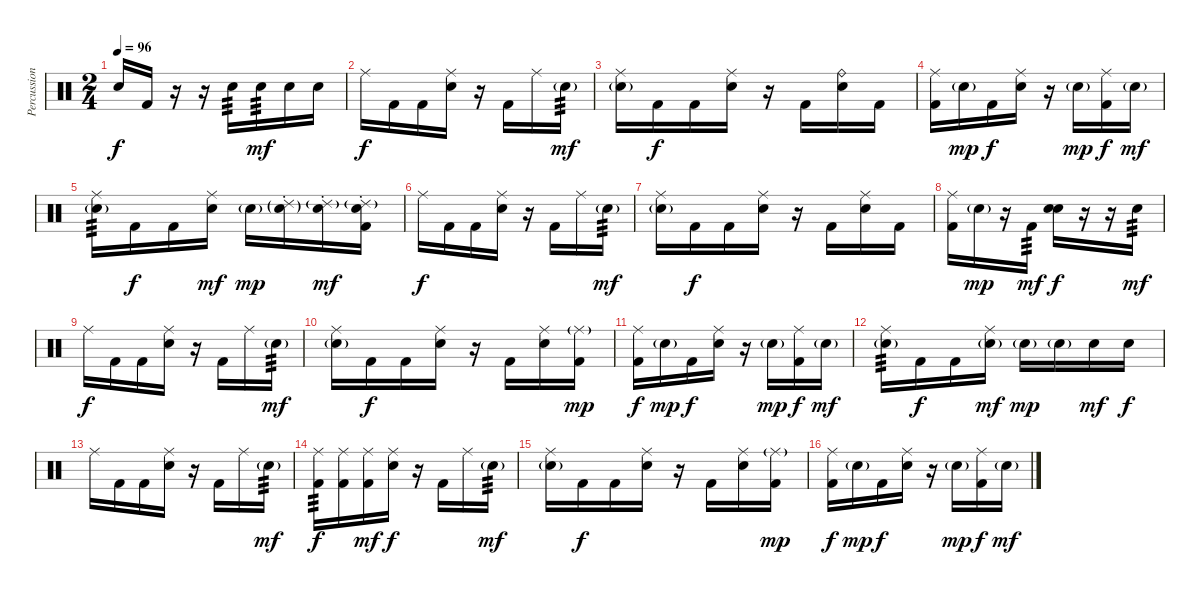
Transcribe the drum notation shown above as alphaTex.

\track ("Percussion" "Percussion") {instrument percussion}
\staff {score}
\articulation defaults
\ts (2 4)
\tempo 96
\clef neutral
\ks c "Snare (hit) 2".16{dy f} "Kick (hit) 2".16
r.16 r.16 "Snare (hit) 2".16{tp 3} "Snare (hit) 2".16{tp 3 dy mf} "Snare (hit) 2".16 "Snare (hit) 2".16 |
"Ride (middle)".16{dy f} "Kick (hit) 2".16 "Kick (hit) 2".16 ("Ride (middle)" "Snare (hit) 2").16 r.16 "Kick (hit) 2".16 "Ride (middle)".16 "Snare (hit) 2"{g}.16{tp 3 dy mf} |
("Ride (middle)" "Snare (hit) 2"{g}).16 "Kick (hit) 2".16{dy f} "Kick (hit) 2".16 ("Ride (middle)" "Snare (hit) 2").16 r.16 "Kick (hit) 2".16 ("Ride (bell)" "Snare (hit) 2").16 "Kick (hit) 2".16 |
("Ride (middle)" "Kick (hit) 2").16 "Snare (hit) 2"{g}.16{dy mp} "Kick (hit) 2".16{dy f} ("Ride (middle)" "Snare (hit) 2").16 r.16 "Snare (hit) 2"{g}.16{dy mp} ("Ride (middle)" "Kick (hit) 2").16{dy f} "Snare (hit) 2"{g}.16{dy mf} |
("Ride (middle)" "Snare (hit) 2"{g}).16{tp 3} "Kick (hit) 2".16{dy f} "Kick (hit) 2".16 ("Ride (middle)" "Snare (hit) 2").16{dy mf} "Snare (hit) 2"{g}.16{dy mp} ("Ride (choke) 2"{g} "Snare (hit) 2"{g}).16 ("Ride (choke) 2"{g} "Snare (hit) 2").16{dy mf} ("Ride (choke) 2"{g} "Snare (hit) 2" "Kick (hit) 2").16 |
"Ride (middle)".16{dy f} "Kick (hit) 2".16 "Kick (hit) 2".16 ("Ride (middle)" "Snare (hit) 2").16 r.16 "Kick (hit) 2".16 "Ride (middle)".16 "Snare (hit) 2"{g}.16{tp 3 dy mf} |
("Ride (middle)" "Snare (hit) 2"{g}).16 "Kick (hit) 2".16{dy f} "Kick (hit) 2".16 ("Ride (middle)" "Snare (hit) 2").16 r.16 "Kick (hit) 2".16 ("Ride (middle)" "Snare (hit) 2").16 "Kick (hit) 2".16 |
("Ride (middle)" "Kick (hit) 2").16 "Snare (hit) 2"{g}.16{dy mp} r.16 "Kick (hit) 2".16{tp 3 dy mf} ("Snare (hit)" "Snare (hit) 2").16{dy f} r.16 r.16 "Snare (hit) 2".16{tp 3 dy mf} |
"Ride (middle)".16{dy f} "Kick (hit) 2".16 "Kick (hit) 2".16 ("Ride (middle)" "Snare (hit) 2").16 r.16 "Kick (hit) 2".16 "Ride (middle)".16 "Snare (hit) 2"{g}.16{tp 3 dy mf} |
("Ride (middle)" "Snare (hit) 2"{g}).16 "Kick (hit) 2".16{dy f} "Kick (hit) 2".16 ("Ride (middle)" "Snare (hit) 2").16 r.16 "Kick (hit) 2".16 ("Ride (middle)" "Snare (hit) 2").16 ("Ride (middle)"{g} "Kick (hit) 2").16{dy mp} |
("Ride (middle)" "Kick (hit) 2").16{dy f} "Snare (hit) 2"{g}.16{dy mp} "Kick (hit) 2".16{dy f} ("Ride (middle)" "Snare (hit) 2").16 r.16 "Snare (hit) 2"{g}.16{dy mp} ("Ride (middle)" "Kick (hit) 2").16{dy f} "Snare (hit) 2"{g}.16{dy mf} |
("Ride (middle)" "Snare (hit) 2"{g}).16{tp 3} "Kick (hit) 2".16{dy f} "Kick (hit) 2".16 ("Ride (middle)" "Snare (hit) 2"{g}).16{dy mf} "Snare (hit) 2"{g}.16{dy mp} "Snare (hit) 2"{g}.16 "Snare (hit) 2".16{dy mf} "Snare (hit) 2".16{dy f} |
"Ride (middle)".16 "Kick (hit) 2".16 "Kick (hit) 2".16 ("Ride (middle)" "Snare (hit) 2").16 r.16 "Kick (hit) 2".16 "Ride (middle)".16 "Snare (hit) 2"{g}.16{tp 3 dy mf} |
("Ride (middle)" "Kick (hit) 2").16{tp 3 dy f} ("Ride (middle)" "Kick (hit) 2").16 ("Ride (middle)" "Kick (hit) 2").16{dy mf} ("Ride (middle)" "Snare (hit) 2").16{dy f} r.16 "Kick (hit) 2".16 "Ride (middle)".16 "Snare (hit) 2"{g}.16{tp 3 dy mf} |
("Ride (middle)" "Snare (hit) 2"{g}).16 "Kick (hit) 2".16{dy f} "Kick (hit) 2".16 ("Ride (middle)" "Snare (hit) 2").16 r.16 "Kick (hit) 2".16 ("Ride (middle)" "Snare (hit) 2").16 ("Ride (middle)"{g} "Kick (hit) 2").16{dy mp} |
("Ride (middle)" "Kick (hit) 2").16{dy f} "Snare (hit) 2"{g}.16{dy mp} "Kick (hit) 2".16{dy f} ("Ride (middle)" "Snare (hit) 2").16 r.16 "Snare (hit) 2"{g}.16{dy mp} ("Ride (middle)" "Kick (hit) 2").16{dy f} "Snare (hit) 2"{g}.16{dy mf}
